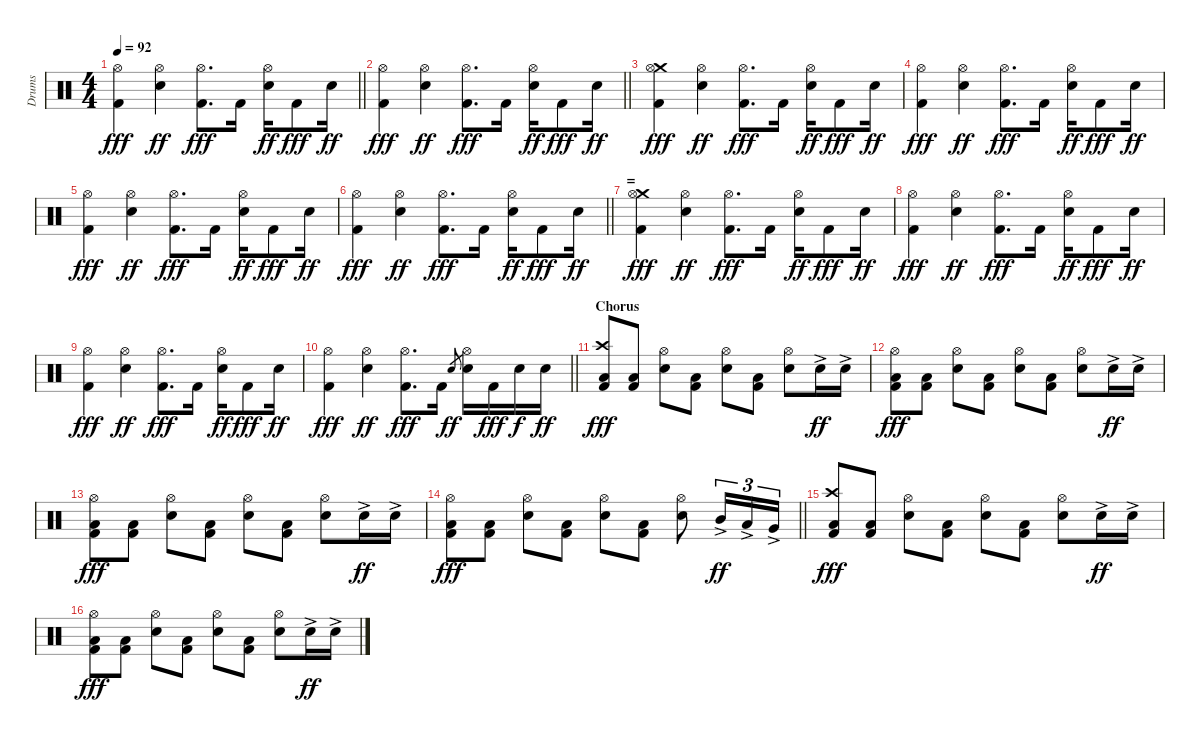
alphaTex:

\track ("Drums" "Drums") {instrument percussion}
\staff {score}
\articulation defaults
\ts (4 4)
\tempo 92
\clef neutral
\barLineRight lightlight
\ks c
("Hi-Hat (open)" "Kick (hit) 2").4{dy fff} ("Hi-Hat (open)" "Electric Snare (hit)").4{dy ff} ("Hi-Hat (open)" "Kick (hit) 2").8{d dy fff} "Kick (hit) 2".16 ("Hi-Hat (open)" "Electric Snare (hit)").16{dy ff} "Kick (hit) 2".8{dy fff} "Electric Snare (hit)".16{dy ff} |
\section ("" "")
\barLineRight lightlight
("Hi-Hat (open)" "Kick (hit) 2").4{dy fff} ("Hi-Hat (open)" "Electric Snare (hit)").4{dy ff} ("Hi-Hat (open)" "Kick (hit) 2").8{d dy fff} "Kick (hit) 2".16 ("Hi-Hat (open)" "Electric Snare (hit)").16{dy ff} "Kick (hit) 2".8{dy fff} "Electric Snare (hit)".16{dy ff} |
\section ("" "")
("Crash medium (hit)" "Hi-Hat (open)" "Kick (hit) 2").4{dy fff} ("Hi-Hat (open)" "Electric Snare (hit)").4{dy ff} ("Hi-Hat (open)" "Kick (hit) 2").8{d dy fff} "Kick (hit) 2".16 ("Hi-Hat (open)" "Electric Snare (hit)").16{dy ff} "Kick (hit) 2".8{dy fff} "Electric Snare (hit)".16{dy ff} |
("Hi-Hat (open)" "Kick (hit) 2").4{dy fff} ("Hi-Hat (open)" "Electric Snare (hit)").4{dy ff} ("Hi-Hat (open)" "Kick (hit) 2").8{d dy fff} "Kick (hit) 2".16 ("Hi-Hat (open)" "Electric Snare (hit)").16{dy ff} "Kick (hit) 2".8{dy fff} "Electric Snare (hit)".16{dy ff} |
("Hi-Hat (open)" "Kick (hit) 2").4{dy fff} ("Hi-Hat (open)" "Electric Snare (hit)").4{dy ff} ("Hi-Hat (open)" "Kick (hit) 2").8{d dy fff} "Kick (hit) 2".16 ("Hi-Hat (open)" "Electric Snare (hit)").16{dy ff} "Kick (hit) 2".8{dy fff} "Electric Snare (hit)".16{dy ff} |
\barLineRight lightlight
("Hi-Hat (open)" "Kick (hit) 2").4{dy fff} ("Hi-Hat (open)" "Electric Snare (hit)").4{dy ff} ("Hi-Hat (open)" "Kick (hit) 2").8{d dy fff} "Kick (hit) 2".16 ("Hi-Hat (open)" "Electric Snare (hit)").16{dy ff} "Kick (hit) 2".8{dy fff} "Electric Snare (hit)".16{dy ff} |
\section ("" "=")
("Crash medium (hit)" "Hi-Hat (open)" "Kick (hit) 2").4{dy fff} ("Hi-Hat (open)" "Electric Snare (hit)").4{dy ff} ("Hi-Hat (open)" "Kick (hit) 2").8{d dy fff} "Kick (hit) 2".16 ("Hi-Hat (open)" "Electric Snare (hit)").16{dy ff} "Kick (hit) 2".8{dy fff} "Electric Snare (hit)".16{dy ff} |
("Hi-Hat (open)" "Kick (hit) 2").4{dy fff} ("Hi-Hat (open)" "Electric Snare (hit)").4{dy ff} ("Hi-Hat (open)" "Kick (hit) 2").8{d dy fff} "Kick (hit) 2".16 ("Hi-Hat (open)" "Electric Snare (hit)").16{dy ff} "Kick (hit) 2".8{dy fff} "Electric Snare (hit)".16{dy ff} |
("Hi-Hat (open)" "Kick (hit) 2").4{dy fff} ("Hi-Hat (open)" "Electric Snare (hit)").4{dy ff} ("Hi-Hat (open)" "Kick (hit) 2").8{d dy fff} "Kick (hit) 2".16 ("Hi-Hat (open)" "Electric Snare (hit)").16{dy ff} "Kick (hit) 2".8{dy fff} "Electric Snare (hit)".16{dy ff} |
\barLineRight lightlight
("Hi-Hat (open)" "Kick (hit) 2").4{dy fff} ("Hi-Hat (open)" "Electric Snare (hit)").4{dy ff} ("Hi-Hat (open)" "Kick (hit) 2").8{d dy fff} "Kick (hit) 2".16 "Electric Snare (hit)".8{gr dy ff} ("Hi-Hat (open)" "Electric Snare (hit)").16 "Kick (hit) 2".16{dy fff} "Electric Snare (hit)".16{dy f} "Electric Snare (hit)".16{dy ff} |
\section ("" "Chorus")
("Crash high (hit)" "Low Floor Tom (hit)" "Kick (hit) 2").8{dy fff} ("Low Floor Tom (hit)" "Kick (hit) 2").8 ("Hi-Hat (open)" "Electric Snare (hit)").8 ("Low Floor Tom (hit)" "Kick (hit) 2").8 ("Hi-Hat (open)" "Electric Snare (hit)").8 ("Low Floor Tom (hit)" "Kick (hit) 2").8 ("Hi-Hat (open)" "Electric Snare (hit)").8 "Electric Snare (hit)"{ac}.16{dy ff} "Electric Snare (hit)"{ac}.16 |
("Hi-Hat (open)" "Low Floor Tom (hit)" "Kick (hit) 2").8{dy fff} ("Low Floor Tom (hit)" "Kick (hit) 2").8 ("Hi-Hat (open)" "Electric Snare (hit)").8 ("Low Floor Tom (hit)" "Kick (hit) 2").8 ("Hi-Hat (open)" "Electric Snare (hit)").8 ("Low Floor Tom (hit)" "Kick (hit) 2").8 ("Hi-Hat (open)" "Electric Snare (hit)").8 "Electric Snare (hit)"{ac}.16{dy ff} "Electric Snare (hit)"{ac}.16 |
("Hi-Hat (open)" "Low Floor Tom (hit)" "Kick (hit) 2").8{dy fff} ("Low Floor Tom (hit)" "Kick (hit) 2").8 ("Hi-Hat (open)" "Electric Snare (hit)").8 ("Low Floor Tom (hit)" "Kick (hit) 2").8 ("Hi-Hat (open)" "Electric Snare (hit)").8 ("Low Floor Tom (hit)" "Kick (hit) 2").8 ("Hi-Hat (open)" "Electric Snare (hit)").8 "Electric Snare (hit)"{ac}.16{dy ff} "Electric Snare (hit)"{ac}.16 |
\barLineRight lightlight
("Hi-Hat (open)" "Low Floor Tom (hit)" "Kick (hit) 2").8{dy fff} ("Low Floor Tom (hit)" "Kick (hit) 2").8 ("Hi-Hat (open)" "Electric Snare (hit)").8 ("Low Floor Tom (hit)" "Kick (hit) 2").8 ("Hi-Hat (open)" "Electric Snare (hit)").8 ("Low Floor Tom (hit)" "Kick (hit) 2").8 ("Hi-Hat (open)" "Electric Snare (hit)").8 "Mid Tom (hit)"{ac}.16{tu (3 2) dy ff} "Low Tom (hit)"{ac}.16{tu (3 2)} "Very Low Tom (hit)"{ac}.16{tu (3 2)} |
\section ("" "")
("Crash high (hit)" "Low Floor Tom (hit)" "Kick (hit) 2").8{dy fff} ("Low Floor Tom (hit)" "Kick (hit) 2").8 ("Hi-Hat (open)" "Electric Snare (hit)").8 ("Low Floor Tom (hit)" "Kick (hit) 2").8 ("Hi-Hat (open)" "Electric Snare (hit)").8 ("Low Floor Tom (hit)" "Kick (hit) 2").8 ("Hi-Hat (open)" "Electric Snare (hit)").8 "Electric Snare (hit)"{ac}.16{dy ff} "Electric Snare (hit)"{ac}.16 |
("Hi-Hat (open)" "Low Floor Tom (hit)" "Kick (hit) 2").8{dy fff} ("Low Floor Tom (hit)" "Kick (hit) 2").8 ("Hi-Hat (open)" "Electric Snare (hit)").8 ("Low Floor Tom (hit)" "Kick (hit) 2").8 ("Hi-Hat (open)" "Electric Snare (hit)").8 ("Low Floor Tom (hit)" "Kick (hit) 2").8 ("Hi-Hat (open)" "Electric Snare (hit)").8 "Electric Snare (hit)"{ac}.16{dy ff} "Electric Snare (hit)"{ac}.16
